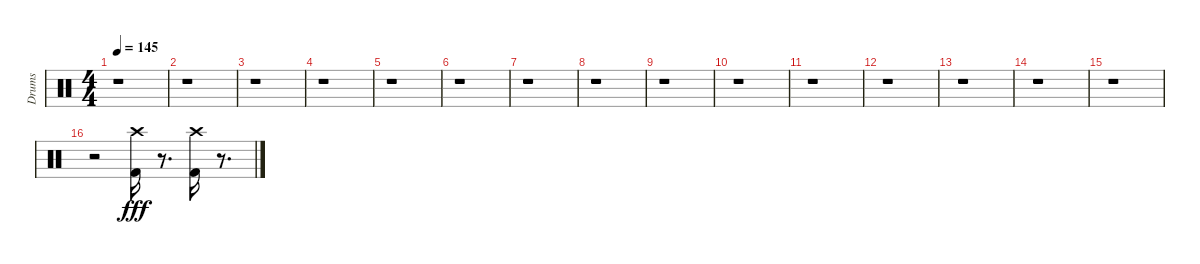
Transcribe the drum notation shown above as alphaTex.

\track ("Drums" "Drums") {instrument percussion}
\staff {score}
\articulation defaults
\ts (4 4)
\tempo 145
\clef neutral
\ks c
r.1{dy fff} |
r.1 |
r.1 |
r.1 |
r.1 |
r.1 |
r.1 |
r.1 |
r.1 |
r.1 |
r.1 |
r.1 |
r.1 |
r.1 |
r.1 |
r.2 ("Crash high (hit)" "Kick (hit) 2").16 r.8{d} ("Crash high (hit)" "Kick (hit) 2").16 r.8{d}
